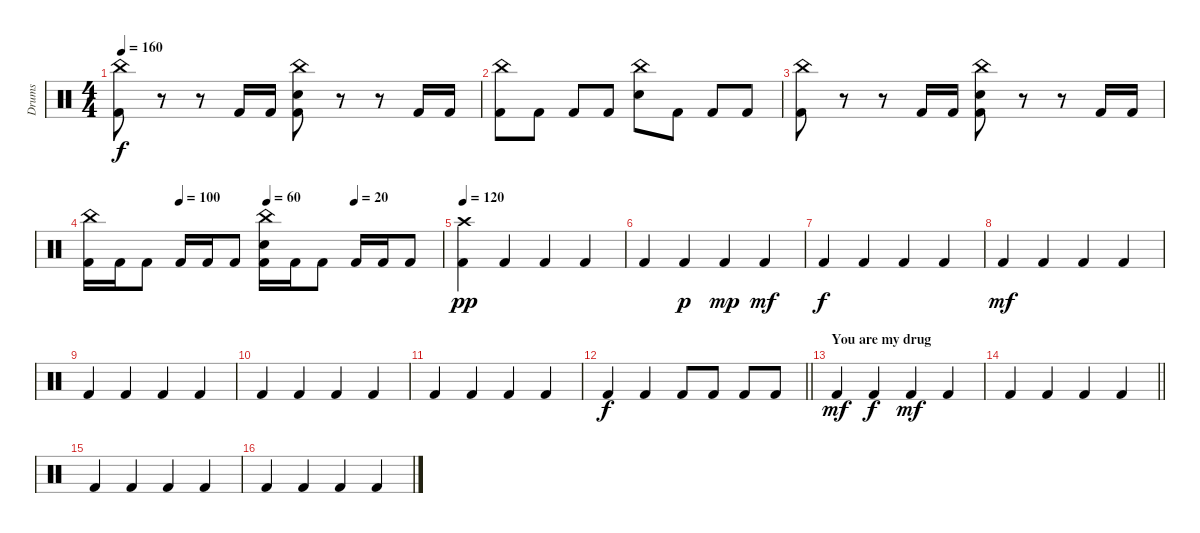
\track ("Drums" "Drums") {instrument percussion}
\staff {score}
\articulation defaults
\ts (4 4)
\tempo 160
\clef neutral
\ks c
("China (hit)" "Kick (hit) 2").8{dy f} r.8 r.8 "Kick (hit) 2".16 "Kick (hit) 2".16 ("China (hit)" "Electric Snare (hit)" "Kick (hit) 2").8 r.8 r.8 "Kick (hit) 2".16 "Kick (hit) 2".16 |
("China (hit)" "Kick (hit) 2").8 "Kick (hit) 2".8 "Kick (hit) 2".8 "Kick (hit) 2".8 ("China (hit)" "Electric Snare (hit)").8 "Kick (hit) 2".8 "Kick (hit) 2".8 "Kick (hit) 2".8 |
("China (hit)" "Kick (hit) 2").8 r.8 r.8 "Kick (hit) 2".16 "Kick (hit) 2".16 ("China (hit)" "Electric Snare (hit)" "Kick (hit) 2").8 r.8 r.8 "Kick (hit) 2".16 "Kick (hit) 2".16 |
\tempo (100 0.25)
\tempo (60 0.5)
\tempo (20 0.75)
("China (hit)" "Kick (hit) 2").16 "Kick (hit) 2".16 "Kick (hit) 2".8 "Kick (hit) 2".16 "Kick (hit) 2".16 "Kick (hit) 2".8 ("China (hit)" "Electric Snare (hit)" "Kick (hit) 2").16 "Kick (hit) 2".16 "Kick (hit) 2".8 "Kick (hit) 2".16 "Kick (hit) 2".16 "Kick (hit) 2".8 |
\tempo 120
("Crash high (hit)" "Kick (hit) 2").4{dy pp} "Kick (hit) 2".4 "Kick (hit) 2".4 "Kick (hit) 2".4 |
"Kick (hit) 2".4 "Kick (hit) 2".4{dy p} "Kick (hit) 2".4{dy mp} "Kick (hit) 2".4{dy mf} |
"Kick (hit) 2".4{dy f} "Kick (hit) 2".4 "Kick (hit) 2".4 "Kick (hit) 2".4 |
"Kick (hit) 2".4{dy mf} "Kick (hit) 2".4 "Kick (hit) 2".4 "Kick (hit) 2".4 |
"Kick (hit) 2".4 "Kick (hit) 2".4 "Kick (hit) 2".4 "Kick (hit) 2".4 |
"Kick (hit) 2".4 "Kick (hit) 2".4 "Kick (hit) 2".4 "Kick (hit) 2".4 |
"Kick (hit) 2".4 "Kick (hit) 2".4 "Kick (hit) 2".4 "Kick (hit) 2".4 |
\barLineRight lightlight "Kick (hit) 2".4{dy f} "Kick (hit) 2".4 "Kick (hit) 2".8 "Kick (hit) 2".8 "Kick (hit) 2".8 "Kick (hit) 2".8
|
\section ("" "You are my drug")
"Kick (hit) 2".4{dy mf} "Kick (hit) 2".4{dy f} "Kick (hit) 2".4{dy mf} "Kick (hit) 2".4 |
\barLineRight lightlight "Kick (hit) 2".4 "Kick (hit) 2".4 "Kick (hit) 2".4 "Kick (hit) 2".4
|
"Kick (hit) 2".4 "Kick (hit) 2".4 "Kick (hit) 2".4 "Kick (hit) 2".4 |
"Kick (hit) 2".4 "Kick (hit) 2".4 "Kick (hit) 2".4 "Kick (hit) 2".4
